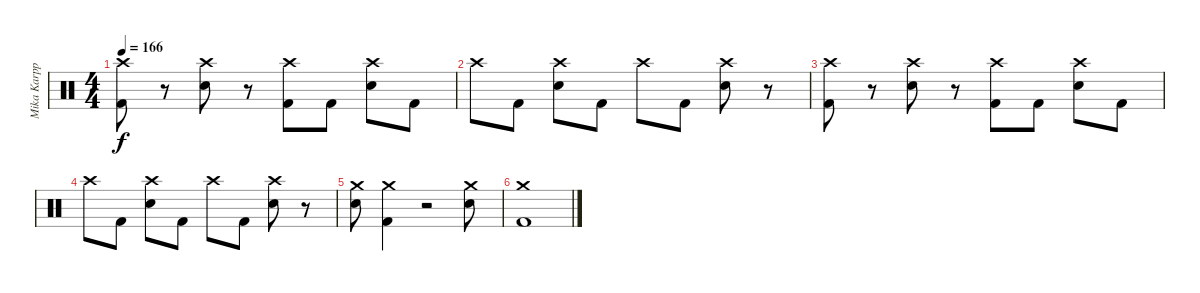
\track ("Mika Karppinen" "Mika Karpp") {instrument percussion}
\staff {score}
\articulation defaults
\ts (4 4)
\tempo 166
\clef neutral
\ks c
("Crash high (hit)" "Kick (hit) 2").8{dy f} r.8 ("Crash high (hit)" "Snare (hit) 2").8 r.8 ("Crash high (hit)" "Kick (hit) 2").8 "Kick (hit) 2".8 ("Crash high (hit)" "Snare (hit) 2").8 "Kick (hit) 2".8 |
"Crash high (hit)".8 "Kick (hit) 2".8 ("Crash high (hit)" "Snare (hit) 2").8 "Kick (hit) 2".8 "Crash high (hit)".8 "Kick (hit) 2".8 ("Crash high (hit)" "Snare (hit) 2").8 r.8 |
("Crash high (hit)" "Kick (hit) 2").8 r.8 ("Crash high (hit)" "Snare (hit) 2").8 r.8 ("Crash high (hit)" "Kick (hit) 2").8 "Kick (hit) 2".8 ("Crash high (hit)" "Snare (hit) 2").8 "Kick (hit) 2".8 |
"Crash high (hit)".8 "Kick (hit) 2".8 ("Crash high (hit)" "Snare (hit) 2").8 "Kick (hit) 2".8 "Crash high (hit)".8 "Kick (hit) 2".8 ("Crash high (hit)" "Snare (hit) 2").8 r.8 |
("Crash medium (hit)" "Snare (hit) 2").8 ("Crash medium (hit)" "Kick (hit) 2").4 r.2 ("Crash medium (hit)" "Snare (hit) 2").8 |
("Crash medium (hit)" "Kick (hit) 2").1
